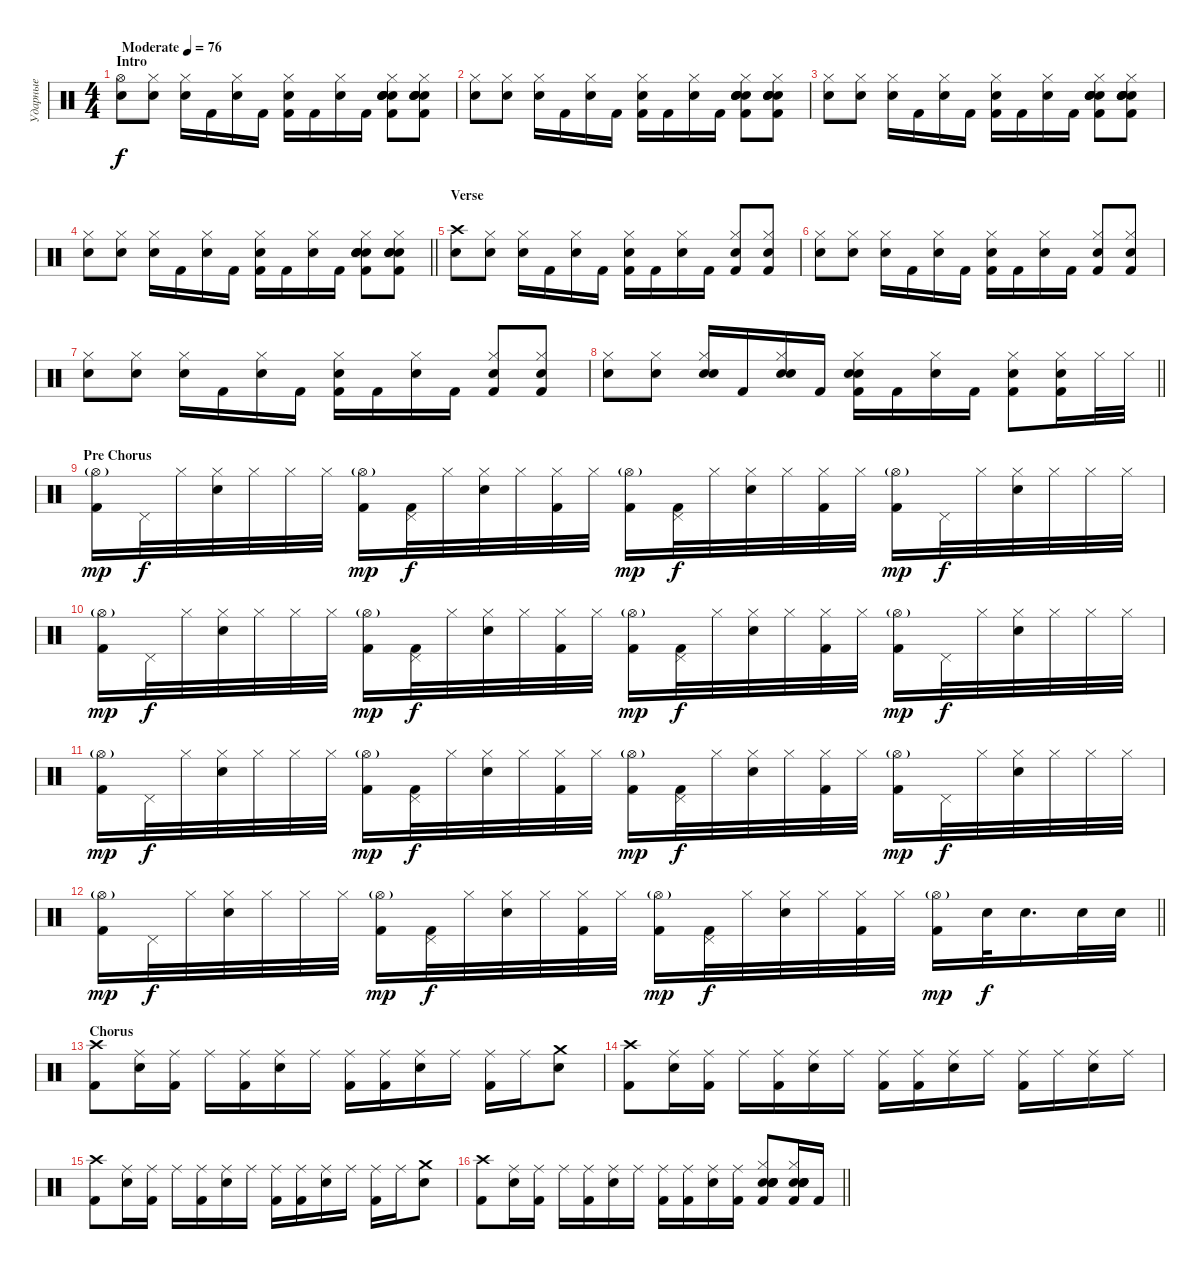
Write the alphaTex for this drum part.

\track ("Ударные" "Ударные") {instrument percussion}
\staff {score}
\articulation defaults
\ts (4 4)
\section ("" "Intro")
\tempo (76 "Moderate")
\clef neutral
\ks c
("Hi-Hat (open)" "Electric Snare (hit)").8{dy f} ("Hi-Hat (closed)" "Electric Snare (hit)").8 ("Hi-Hat (closed)" "Electric Snare (hit)").16 "Kick (hit) 2".16 ("Hi-Hat (closed)" "Electric Snare (hit)").16 "Kick (hit) 2".16 ("Hi-Hat (closed)" "Electric Snare (hit)" "Kick (hit) 2").16 "Kick (hit) 2".16 ("Hi-Hat (closed)" "Electric Snare (hit)").16 "Kick (hit) 2".16 ("Hand Clap (hit)" "Hand Clap (hit)" "Hi-Hat (closed)" "Hand Clap (hit)" "Electric Snare (hit)" "Kick (hit) 2").8{bd 60} ("Hand Clap (hit)" "Hand Clap (hit)" "Hi-Hat (closed)" "Hand Clap (hit)" "Electric Snare (hit)" "Kick (hit) 2").8{bd 60} |
("Hi-Hat (closed)" "Electric Snare (hit)").8 ("Hi-Hat (closed)" "Electric Snare (hit)").8 ("Hi-Hat (closed)" "Electric Snare (hit)").16 "Kick (hit) 2".16 ("Hi-Hat (closed)" "Electric Snare (hit)").16 "Kick (hit) 2".16 ("Hi-Hat (closed)" "Electric Snare (hit)" "Kick (hit) 2").16 "Kick (hit) 2".16 ("Hi-Hat (closed)" "Electric Snare (hit)").16 "Kick (hit) 2".16 ("Hand Clap (hit)" "Hi-Hat (closed)" "Hand Clap (hit)" "Electric Snare (hit)" "Hand Clap (hit)" "Kick (hit) 2").8{bd 30} ("Hand Clap (hit)" "Hi-Hat (closed)" "Hand Clap (hit)" "Electric Snare (hit)" "Hand Clap (hit)" "Kick (hit) 2").8{bd 30} |
("Hi-Hat (closed)" "Electric Snare (hit)").8 ("Hi-Hat (closed)" "Electric Snare (hit)").8 ("Hi-Hat (closed)" "Electric Snare (hit)").16 "Kick (hit) 2".16 ("Hi-Hat (closed)" "Electric Snare (hit)").16 "Kick (hit) 2".16 ("Hi-Hat (closed)" "Electric Snare (hit)" "Kick (hit) 2").16 "Kick (hit) 2".16 ("Hi-Hat (closed)" "Electric Snare (hit)").16 "Kick (hit) 2".16 ("Hand Clap (hit)" "Hand Clap (hit)" "Hi-Hat (closed)" "Hand Clap (hit)" "Electric Snare (hit)" "Kick (hit) 2").8{bd 60} ("Hand Clap (hit)" "Hand Clap (hit)" "Hi-Hat (closed)" "Hand Clap (hit)" "Electric Snare (hit)" "Kick (hit) 2").8{bd 60} |
\barLineRight lightlight
("Hi-Hat (closed)" "Electric Snare (hit)").8 ("Hi-Hat (closed)" "Electric Snare (hit)").8 ("Hi-Hat (closed)" "Electric Snare (hit)").16 "Kick (hit) 2".16 ("Hi-Hat (closed)" "Electric Snare (hit)").16 "Kick (hit) 2".16 ("Hi-Hat (closed)" "Electric Snare (hit)" "Kick (hit) 2").16 "Kick (hit) 2".16 ("Hi-Hat (closed)" "Electric Snare (hit)").16 "Kick (hit) 2".16 ("Hand Clap (hit)" "Hand Clap (hit)" "Hi-Hat (closed)" "Hand Clap (hit)" "Electric Snare (hit)" "Kick (hit) 2").8{bd 60} ("Hand Clap (hit)" "Hand Clap (hit)" "Hi-Hat (closed)" "Hand Clap (hit)" "Electric Snare (hit)" "Kick (hit) 2").8{bd 60} |
\section ("" "Verse")
("Crash high (hit)" "Electric Snare (hit)").8 ("Hi-Hat (closed)" "Electric Snare (hit)").8 ("Hi-Hat (closed)" "Electric Snare (hit)").16 "Kick (hit) 2".16 ("Hi-Hat (closed)" "Electric Snare (hit)").16 "Kick (hit) 2".16 ("Hi-Hat (closed)" "Electric Snare (hit)" "Kick (hit) 2").16 "Kick (hit) 2".16 ("Hi-Hat (closed)" "Electric Snare (hit)").16 "Kick (hit) 2".16 ("Hi-Hat (closed)" "Electric Snare (hit)" "Kick (hit) 2").8 ("Hi-Hat (closed)" "Electric Snare (hit)" "Kick (hit) 2").8 |
("Hi-Hat (closed)" "Electric Snare (hit)").8 ("Hi-Hat (closed)" "Electric Snare (hit)").8 ("Hi-Hat (closed)" "Electric Snare (hit)").16 "Kick (hit) 2".16 ("Hi-Hat (closed)" "Electric Snare (hit)").16 "Kick (hit) 2".16 ("Hi-Hat (closed)" "Electric Snare (hit)" "Kick (hit) 2").16 "Kick (hit) 2".16 ("Hi-Hat (closed)" "Electric Snare (hit)").16 "Kick (hit) 2".16 ("Hi-Hat (closed)" "Electric Snare (hit)" "Kick (hit) 2").8 ("Hi-Hat (closed)" "Electric Snare (hit)" "Kick (hit) 2").8 |
("Hi-Hat (closed)" "Electric Snare (hit)").8 ("Hi-Hat (closed)" "Electric Snare (hit)").8 ("Hi-Hat (closed)" "Electric Snare (hit)").16 "Kick (hit) 2".16 ("Hi-Hat (closed)" "Electric Snare (hit)").16 "Kick (hit) 2".16 ("Hi-Hat (closed)" "Electric Snare (hit)" "Kick (hit) 2").16 "Kick (hit) 2".16 ("Hi-Hat (closed)" "Electric Snare (hit)").16 "Kick (hit) 2".16 ("Hi-Hat (closed)" "Electric Snare (hit)" "Kick (hit) 2").8 ("Hi-Hat (closed)" "Electric Snare (hit)" "Kick (hit) 2").8 |
\barLineRight lightlight
("Hi-Hat (closed)" "Electric Snare (hit)").8 ("Hi-Hat (closed)" "Electric Snare (hit)").8 ("Hand Clap (hit)" "Hi-Hat (closed)" "Electric Snare (hit)").16 "Kick (hit) 2".16 ("Hand Clap (hit)" "Hi-Hat (closed)" "Electric Snare (hit)").16 "Kick (hit) 2".16 ("Hand Clap (hit)" "Hi-Hat (closed)" "Electric Snare (hit)" "Kick (hit) 2").16 "Kick (hit) 2".16 ("Hi-Hat (closed)" "Electric Snare (hit)").16 "Kick (hit) 2".16 ("Hi-Hat (closed)" "Electric Snare (hit)" "Kick (hit) 2").8 ("Hi-Hat (closed)" "Electric Snare (hit)" "Kick (hit) 2").16 "Hi-Hat (closed)".32 "Hi-Hat (closed)".32 |
\section ("" "Pre Chorus")
("Hi-Hat (open)"{g} "Kick (hit) 2").16{dy mp} "Pedal Hi-Hat (hit)".32{dy f} "Hi-Hat (closed)".32 ("Hi-Hat (closed)" "Electric Snare (hit)").32 "Hi-Hat (closed)".32 "Hi-Hat (closed)".32 "Hi-Hat (closed)".32 ("Hi-Hat (open)"{g} "Kick (hit) 2").16{dy mp} ("Pedal Hi-Hat (hit)" "Kick (hit) 2").32{dy f} "Hi-Hat (closed)".32 ("Hi-Hat (closed)" "Electric Snare (hit)").32 "Hi-Hat (closed)".32 ("Hi-Hat (closed)" "Kick (hit) 2").32 "Hi-Hat (closed)".32 ("Hi-Hat (open)"{g} "Kick (hit) 2").16{dy mp} ("Pedal Hi-Hat (hit)" "Kick (hit) 2").32{dy f} "Hi-Hat (closed)".32 ("Hi-Hat (closed)" "Electric Snare (hit)").32 "Hi-Hat (closed)".32 ("Hi-Hat (closed)" "Kick (hit) 2").32 "Hi-Hat (closed)".32 ("Hi-Hat (open)"{g} "Kick (hit) 2").16{dy mp} "Pedal Hi-Hat (hit)".32{dy f} "Hi-Hat (closed)".32 ("Hi-Hat (closed)" "Electric Snare (hit)").32 "Hi-Hat (closed)".32 "Hi-Hat (closed)".32 "Hi-Hat (closed)".32 |
("Hi-Hat (open)"{g} "Kick (hit) 2").16{dy mp} "Pedal Hi-Hat (hit)".32{dy f} "Hi-Hat (closed)".32 ("Hi-Hat (closed)" "Electric Snare (hit)").32 "Hi-Hat (closed)".32 "Hi-Hat (closed)".32 "Hi-Hat (closed)".32 ("Hi-Hat (open)"{g} "Kick (hit) 2").16{dy mp} ("Pedal Hi-Hat (hit)" "Kick (hit) 2").32{dy f} "Hi-Hat (closed)".32 ("Hi-Hat (closed)" "Electric Snare (hit)").32 "Hi-Hat (closed)".32 ("Hi-Hat (closed)" "Kick (hit) 2").32 "Hi-Hat (closed)".32 ("Hi-Hat (open)"{g} "Kick (hit) 2").16{dy mp} ("Pedal Hi-Hat (hit)" "Kick (hit) 2").32{dy f} "Hi-Hat (closed)".32 ("Hi-Hat (closed)" "Electric Snare (hit)").32 "Hi-Hat (closed)".32 ("Hi-Hat (closed)" "Kick (hit) 2").32 "Hi-Hat (closed)".32 ("Hi-Hat (open)"{g} "Kick (hit) 2").16{dy mp} "Pedal Hi-Hat (hit)".32{dy f} "Hi-Hat (closed)".32 ("Hi-Hat (closed)" "Electric Snare (hit)").32 "Hi-Hat (closed)".32 "Hi-Hat (closed)".32 "Hi-Hat (closed)".32 |
("Hi-Hat (open)"{g} "Kick (hit) 2").16{dy mp} "Pedal Hi-Hat (hit)".32{dy f} "Hi-Hat (closed)".32 ("Hi-Hat (closed)" "Electric Snare (hit)").32 "Hi-Hat (closed)".32 "Hi-Hat (closed)".32 "Hi-Hat (closed)".32 ("Hi-Hat (open)"{g} "Kick (hit) 2").16{dy mp} ("Pedal Hi-Hat (hit)" "Kick (hit) 2").32{dy f} "Hi-Hat (closed)".32 ("Hi-Hat (closed)" "Electric Snare (hit)").32 "Hi-Hat (closed)".32 ("Hi-Hat (closed)" "Kick (hit) 2").32 "Hi-Hat (closed)".32 ("Hi-Hat (open)"{g} "Kick (hit) 2").16{dy mp} ("Pedal Hi-Hat (hit)" "Kick (hit) 2").32{dy f} "Hi-Hat (closed)".32 ("Hi-Hat (closed)" "Electric Snare (hit)").32 "Hi-Hat (closed)".32 ("Hi-Hat (closed)" "Kick (hit) 2").32 "Hi-Hat (closed)".32 ("Hi-Hat (open)"{g} "Kick (hit) 2").16{dy mp} "Pedal Hi-Hat (hit)".32{dy f} "Hi-Hat (closed)".32 ("Hi-Hat (closed)" "Electric Snare (hit)").32 "Hi-Hat (closed)".32 "Hi-Hat (closed)".32 "Hi-Hat (closed)".32 |
\barLineRight lightlight
("Hi-Hat (open)"{g} "Kick (hit) 2").16{dy mp} "Pedal Hi-Hat (hit)".32{dy f} "Hi-Hat (closed)".32 ("Hi-Hat (closed)" "Electric Snare (hit)").32 "Hi-Hat (closed)".32 "Hi-Hat (closed)".32 "Hi-Hat (closed)".32 ("Hi-Hat (open)"{g} "Kick (hit) 2").16{dy mp} ("Pedal Hi-Hat (hit)" "Kick (hit) 2").32{dy f} "Hi-Hat (closed)".32 ("Hi-Hat (closed)" "Electric Snare (hit)").32 "Hi-Hat (closed)".32 ("Hi-Hat (closed)" "Kick (hit) 2").32 "Hi-Hat (closed)".32 ("Hi-Hat (open)"{g} "Kick (hit) 2").16{dy mp} ("Pedal Hi-Hat (hit)" "Kick (hit) 2").32{dy f} "Hi-Hat (closed)".32 ("Hi-Hat (closed)" "Electric Snare (hit)").32 "Hi-Hat (closed)".32 ("Hi-Hat (closed)" "Kick (hit) 2").32 "Hi-Hat (closed)".32 ("Hi-Hat (open)"{g} "Kick (hit) 2").16{dy mp} "Electric Snare (hit)".32{dy f} "Electric Snare (hit)".16{d} "Electric Snare (hit)".32 "Electric Snare (hit)".32 |
\section ("" "Chorus")
("Crash high (hit)" "Kick (hit) 2").8 ("Ride (middle)" "Electric Snare (hit)").16 ("Ride (middle)" "Kick (hit) 2").16 "Ride (middle)".16 ("Ride (middle)" "Kick (hit) 2").16 ("Ride (middle)" "Electric Snare (hit)").16 "Ride (middle)".16 ("Ride (middle)" "Kick (hit) 2").16 ("Ride (middle)" "Kick (hit) 2").16 ("Ride (middle)" "Electric Snare (hit)").16 "Ride (middle)".16 ("Ride (middle)" "Kick (hit) 2").16 "Ride (middle)".16 ("Crash medium (hit)" "Electric Snare (hit)").8 |
("Crash high (hit)" "Kick (hit) 2").8 ("Ride (middle)" "Electric Snare (hit)").16 ("Ride (middle)" "Kick (hit) 2").16 "Ride (middle)".16 ("Ride (middle)" "Kick (hit) 2").16 ("Ride (middle)" "Electric Snare (hit)").16 "Ride (middle)".16 ("Ride (middle)" "Kick (hit) 2").16 ("Ride (middle)" "Kick (hit) 2").16 ("Ride (middle)" "Electric Snare (hit)").16 "Ride (middle)".16 ("Ride (middle)" "Kick (hit) 2").16 "Ride (middle)".16 ("Ride (middle)" "Electric Snare (hit)").16 "Ride (middle)".16 |
("Crash high (hit)" "Kick (hit) 2").8 ("Ride (middle)" "Electric Snare (hit)").16 ("Ride (middle)" "Kick (hit) 2").16 "Ride (middle)".16 ("Ride (middle)" "Kick (hit) 2").16 ("Ride (middle)" "Electric Snare (hit)").16 "Ride (middle)".16 ("Ride (middle)" "Kick (hit) 2").16 ("Ride (middle)" "Kick (hit) 2").16 ("Ride (middle)" "Electric Snare (hit)").16 "Ride (middle)".16 ("Ride (middle)" "Kick (hit) 2").16 "Ride (middle)".16 ("Crash medium (hit)" "Electric Snare (hit)").8 |
\barLineRight lightlight
("Crash high (hit)" "Kick (hit) 2").8 ("Ride (middle)" "Electric Snare (hit)").16 ("Ride (middle)" "Kick (hit) 2").16 "Ride (middle)".16 ("Ride (middle)" "Kick (hit) 2").16 ("Ride (middle)" "Electric Snare (hit)").16 "Ride (middle)".16 ("Ride (middle)" "Kick (hit) 2").16 ("Ride (middle)" "Kick (hit) 2").16 ("Ride (middle)" "Electric Snare (hit)").16 ("Ride (middle)" "Kick (hit) 2").16 ("Hand Clap (hit)" "Hi-Hat (closed)" "Hand Clap (hit)" "Electric Snare (hit)" "Hand Clap (hit)" "Kick (hit) 2").8{bd 30} ("Hand Clap (hit)" "Hi-Hat (closed)" "Hand Clap (hit)" "Electric Snare (hit)" "Hand Clap (hit)" "Kick (hit) 2").16{bd 30} "Kick (hit) 2".16
